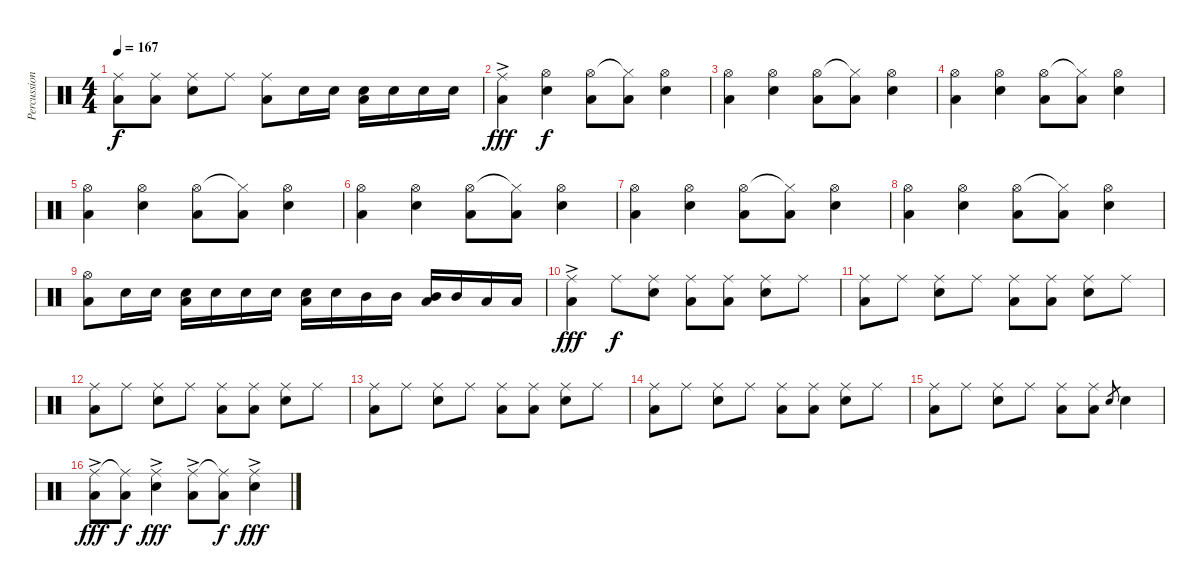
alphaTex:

\track ("Percussion" "Percussion") {instrument percussion}
\staff {score}
\articulation defaults
\ts (4 4)
\tempo 167
\clef neutral
\ks c
("Ride (middle)" "Low Floor Tom (hit)").8{dy f} ("Ride (middle)" "Low Floor Tom (hit)").8 ("Ride (middle)" "Snare (hit) 2").8 "Ride (middle)".8 ("Ride (middle)" "Low Floor Tom (hit)").8 "Snare (hit) 2".16 "Snare (hit) 2".16 ("Snare (hit) 2" "Low Floor Tom (hit)").16 "Snare (hit) 2".16 "Snare (hit) 2".16 "Snare (hit) 2".16 |
("Ride (middle)"{ac} "Low Floor Tom (hit)").4{dy fff} ("Hi-Hat (open)" "Snare (hit) 2").4{dy f} ("Hi-Hat (open)" "Low Floor Tom (hit)").8 ("Hi-Hat (closed)"{t} "Low Floor Tom (hit)").8 ("Hi-Hat (open)" "Snare (hit) 2").4 |
("Hi-Hat (open)" "Low Floor Tom (hit)").4 ("Hi-Hat (open)" "Snare (hit) 2").4 ("Hi-Hat (open)" "Low Floor Tom (hit)").8 ("Hi-Hat (closed)"{t} "Low Floor Tom (hit)").8 ("Hi-Hat (open)" "Snare (hit) 2").4 |
("Hi-Hat (open)" "Low Floor Tom (hit)").4 ("Hi-Hat (open)" "Snare (hit) 2").4 ("Hi-Hat (open)" "Low Floor Tom (hit)").8 ("Hi-Hat (closed)"{t} "Low Floor Tom (hit)").8 ("Hi-Hat (open)" "Snare (hit) 2").4 |
("Hi-Hat (open)" "Low Floor Tom (hit)").4 ("Hi-Hat (open)" "Snare (hit) 2").4 ("Hi-Hat (open)" "Low Floor Tom (hit)").8 ("Hi-Hat (closed)"{t} "Low Floor Tom (hit)").8 ("Hi-Hat (open)" "Snare (hit) 2").4 |
("Hi-Hat (open)" "Low Floor Tom (hit)").4 ("Hi-Hat (open)" "Snare (hit) 2").4 ("Hi-Hat (open)" "Low Floor Tom (hit)").8 ("Hi-Hat (closed)"{t} "Low Floor Tom (hit)").8 ("Hi-Hat (open)" "Snare (hit) 2").4 |
("Hi-Hat (open)" "Low Floor Tom (hit)").4 ("Hi-Hat (open)" "Snare (hit) 2").4 ("Hi-Hat (open)" "Low Floor Tom (hit)").8 ("Hi-Hat (closed)"{t} "Low Floor Tom (hit)").8 ("Hi-Hat (open)" "Snare (hit) 2").4 |
("Hi-Hat (open)" "Low Floor Tom (hit)").4 ("Hi-Hat (open)" "Snare (hit) 2").4 ("Hi-Hat (open)" "Low Floor Tom (hit)").8 ("Hi-Hat (closed)"{t} "Low Floor Tom (hit)").8 ("Hi-Hat (open)" "Snare (hit) 2").4 |
("Hi-Hat (open)" "Low Floor Tom (hit)").8 "Snare (hit) 2".16 "Snare (hit) 2".16 ("Snare (hit) 2" "Low Floor Tom (hit)").16 "Snare (hit) 2".16 "Snare (hit) 2".16 "Snare (hit) 2".16 ("Snare (hit) 2" "Low Floor Tom (hit)").16 "Snare (hit) 2".16 "Mid Tom (hit)".16 "Mid Tom (hit)".16 ("Mid Tom (hit)" "Low Floor Tom (hit)").16 "Mid Tom (hit)".16 "Low Tom (hit)".16 "Low Tom (hit)".16 |
("Ride (middle)"{ac} "Low Floor Tom (hit)").4{dy fff} "Ride (middle)".8{dy f} ("Ride (middle)" "Snare (hit) 2").8 ("Ride (middle)" "Low Floor Tom (hit)").8 ("Ride (middle)" "Low Floor Tom (hit)").8 ("Ride (middle)" "Snare (hit) 2").8 "Ride (middle)".8 |
("Ride (middle)" "Low Floor Tom (hit)").8 "Ride (middle)".8 ("Ride (middle)" "Snare (hit) 2").8 "Ride (middle)".8 ("Ride (middle)" "Low Floor Tom (hit)").8 ("Ride (middle)" "Low Floor Tom (hit)").8 ("Ride (middle)" "Snare (hit) 2").8 "Ride (middle)".8 |
("Ride (middle)" "Low Floor Tom (hit)").8 "Ride (middle)".8 ("Ride (middle)" "Snare (hit) 2").8 "Ride (middle)".8 ("Ride (middle)" "Low Floor Tom (hit)").8 ("Ride (middle)" "Low Floor Tom (hit)").8 ("Ride (middle)" "Snare (hit) 2").8 "Ride (middle)".8 |
("Ride (middle)" "Low Floor Tom (hit)").8 "Ride (middle)".8 ("Ride (middle)" "Snare (hit) 2").8 "Ride (middle)".8 ("Ride (middle)" "Low Floor Tom (hit)").8 ("Ride (middle)" "Low Floor Tom (hit)").8 ("Ride (middle)" "Snare (hit) 2").8 "Ride (middle)".8 |
("Ride (middle)" "Low Floor Tom (hit)").8 "Ride (middle)".8 ("Ride (middle)" "Snare (hit) 2").8 "Ride (middle)".8 ("Ride (middle)" "Low Floor Tom (hit)").8 ("Ride (middle)" "Low Floor Tom (hit)").8 ("Ride (middle)" "Snare (hit) 2").8 "Ride (middle)".8 |
("Ride (middle)" "Low Floor Tom (hit)").8 "Ride (middle)".8 ("Ride (middle)" "Snare (hit) 2").8 "Ride (middle)".8 ("Ride (middle)" "Low Floor Tom (hit)").8 ("Ride (middle)" "Low Floor Tom (hit)").8 "Snare (hit) 2".8{gr} "Snare (hit) 2".4 |
("Ride (middle)"{ac} "Low Floor Tom (hit)").8{dy fff} ("Ride (middle)"{t} "Low Floor Tom (hit)").8{dy f} ("Ride (middle)"{ac} "Snare (hit) 2").4{dy fff} ("Ride (middle)"{ac} "Low Floor Tom (hit)").8 ("Ride (middle)"{t} "Low Floor Tom (hit)").8{dy f} ("Ride (middle)"{ac} "Snare (hit) 2").4{dy fff}
